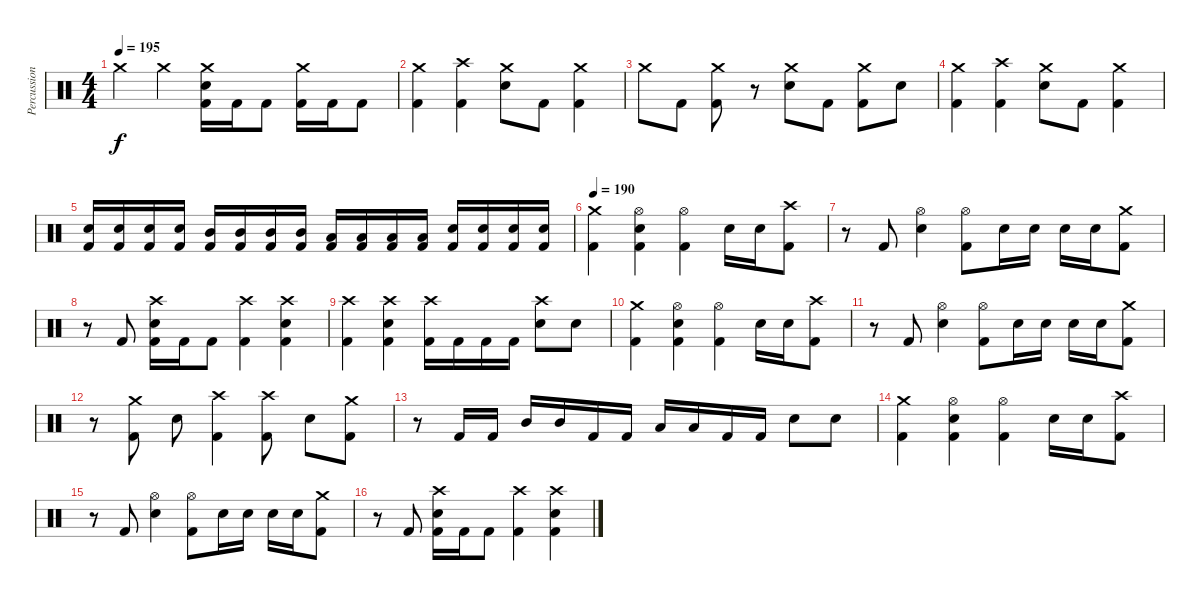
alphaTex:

\track ("Percussion" "Percussion") {instrument percussion}
\staff {score}
\articulation defaults
\ts (4 4)
\tempo 195
\clef neutral
\ks c "Crash medium (hit)".4{dy f} "Crash medium (hit)".4
("Crash medium (hit)" "Electric Snare (hit)" "Kick (hit) 2").16 "Kick (hit) 2".16 "Kick (hit) 2".8 ("Crash medium (hit)" "Kick (hit) 2").16 "Kick (hit) 2".16 "Kick (hit) 2".8 |
("Crash medium (hit)" "Kick (hit) 2").4 ("Crash high (hit)" "Kick (hit) 2").4 ("Crash medium (hit)" "Electric Snare (hit)").8 "Kick (hit) 2".8 ("Crash medium (hit)" "Kick (hit) 2").4 |
"Crash medium (hit)".8 "Kick (hit) 2".8 ("Crash medium (hit)" "Kick (hit) 2").8 r.8 ("Crash medium (hit)" "Electric Snare (hit)").8 "Kick (hit) 2".8 ("Crash medium (hit)" "Kick (hit) 2").8 "Electric Snare (hit)".8 |
("Crash medium (hit)" "Kick (hit) 2").4 ("Crash high (hit)" "Kick (hit) 2").4 ("Crash medium (hit)" "Electric Snare (hit)").8 "Kick (hit) 2".8 ("Crash medium (hit)" "Kick (hit) 2").4 |
("Electric Snare (hit)" "Kick (hit) 2").16 ("Electric Snare (hit)" "Kick (hit) 2").16 ("Electric Snare (hit)" "Kick (hit) 2").16 ("Electric Snare (hit)" "Kick (hit) 2").16 ("Mid Tom (hit)" "Kick (hit) 2").16 ("Mid Tom (hit)" "Kick (hit) 2").16 ("Mid Tom (hit)" "Kick (hit) 2").16 ("Mid Tom (hit)" "Kick (hit) 2").16 ("Low Tom (hit)" "Kick (hit) 2").16 ("Low Tom (hit)" "Kick (hit) 2").16 ("Low Tom (hit)" "Kick (hit) 2").16 ("Low Tom (hit)" "Kick (hit) 2").16 ("Electric Snare (hit)" "Kick (hit) 2").16 ("Electric Snare (hit)" "Kick (hit) 2").16 ("Electric Snare (hit)" "Kick (hit) 2").16 ("Electric Snare (hit)" "Kick (hit) 2").16 |
\tempo 190
("Crash medium (hit)" "Kick (hit) 2").4 ("Hi-Hat (open)" "Electric Snare (hit)" "Kick (hit) 2").4 ("Hi-Hat (open)" "Kick (hit) 2").4 "Electric Snare (hit)".16 "Electric Snare (hit)".16 ("Crash high (hit)" "Kick (hit) 2").8 |
r.8 "Kick (hit) 2".8 ("Hi-Hat (open)" "Electric Snare (hit)").4 ("Hi-Hat (open)" "Kick (hit) 2").8 "Electric Snare (hit)".16 "Electric Snare (hit)".16 "Electric Snare (hit)".16 "Electric Snare (hit)".16 ("Crash medium (hit)" "Kick (hit) 2").8 |
r.8 "Kick (hit) 2".8 ("Crash high (hit)" "Electric Snare (hit)" "Kick (hit) 2").16 "Kick (hit) 2".16 "Kick (hit) 2".8 ("Crash high (hit)" "Kick (hit) 2").4 ("Crash high (hit)" "Electric Snare (hit)" "Kick (hit) 2").4 |
("Crash high (hit)" "Kick (hit) 2").4 ("Crash high (hit)" "Electric Snare (hit)" "Kick (hit) 2").4 ("Crash high (hit)" "Kick (hit) 2").16 "Kick (hit) 2".16 "Kick (hit) 2".16 "Kick (hit) 2".16 ("Crash high (hit)" "Electric Snare (hit)").8 "Electric Snare (hit)".8 |
("Crash medium (hit)" "Kick (hit) 2").4 ("Hi-Hat (open)" "Electric Snare (hit)" "Kick (hit) 2").4 ("Hi-Hat (open)" "Kick (hit) 2").4 "Electric Snare (hit)".16 "Electric Snare (hit)".16 ("Crash high (hit)" "Kick (hit) 2").8 |
r.8 "Kick (hit) 2".8 ("Hi-Hat (open)" "Electric Snare (hit)").4 ("Hi-Hat (open)" "Kick (hit) 2").8 "Electric Snare (hit)".16 "Electric Snare (hit)".16 "Electric Snare (hit)".16 "Electric Snare (hit)".16 ("Crash medium (hit)" "Kick (hit) 2").8 |
r.8 ("Crash medium (hit)" "Kick (hit) 2").8 "Electric Snare (hit)".8 ("Crash high (hit)" "Kick (hit) 2").4 ("Crash high (hit)" "Kick (hit) 2").8 "Electric Snare (hit)".8 ("Crash medium (hit)" "Kick (hit) 2").8 |
r.8 "Kick (hit) 2".16 "Kick (hit) 2".16 "Mid Tom (hit)".16 "Mid Tom (hit)".16 "Kick (hit) 2".16 "Kick (hit) 2".16 "Low Tom (hit)".16 "Low Tom (hit)".16 "Kick (hit) 2".16 "Kick (hit) 2".16 "Electric Snare (hit)".8 "Electric Snare (hit)".8 |
("Crash medium (hit)" "Kick (hit) 2").4 ("Hi-Hat (open)" "Electric Snare (hit)" "Kick (hit) 2").4 ("Hi-Hat (open)" "Kick (hit) 2").4 "Electric Snare (hit)".16 "Electric Snare (hit)".16 ("Crash high (hit)" "Kick (hit) 2").8 |
r.8 "Kick (hit) 2".8 ("Hi-Hat (open)" "Electric Snare (hit)").4 ("Hi-Hat (open)" "Kick (hit) 2").8 "Electric Snare (hit)".16 "Electric Snare (hit)".16 "Electric Snare (hit)".16 "Electric Snare (hit)".16 ("Crash medium (hit)" "Kick (hit) 2").8 |
r.8 "Kick (hit) 2".8 ("Crash high (hit)" "Electric Snare (hit)" "Kick (hit) 2").16 "Kick (hit) 2".16 "Kick (hit) 2".8 ("Crash high (hit)" "Kick (hit) 2").4 ("Crash high (hit)" "Electric Snare (hit)" "Kick (hit) 2").4
